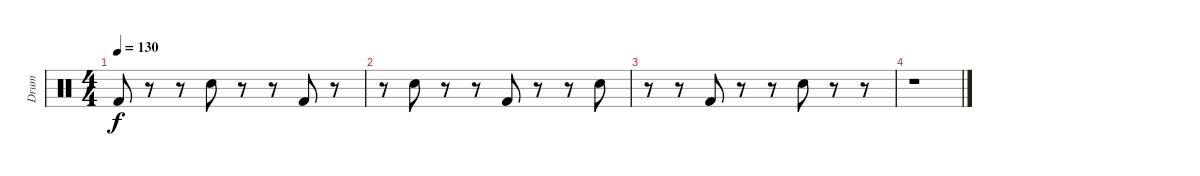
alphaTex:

\track ("Drum" "Drum") {mute instrument percussion}
\staff {score}
\articulation defaults
\ts (4 4)
\tempo 130
\clef neutral
\ks c "Kick (hit) 2".8{dy f}
r.8 r.8 "Snare (hit) 2".8 r.8 r.8 "Kick (hit) 2".8 r.8 |
r.8 "Snare (hit) 2".8 r.8 r.8 "Kick (hit) 2".8 r.8 r.8 "Snare (hit) 2".8 |
r.8 r.8 "Kick (hit) 2".8 r.8 r.8 "Snare (hit) 2".8 r.8 r.8 |
r.1
